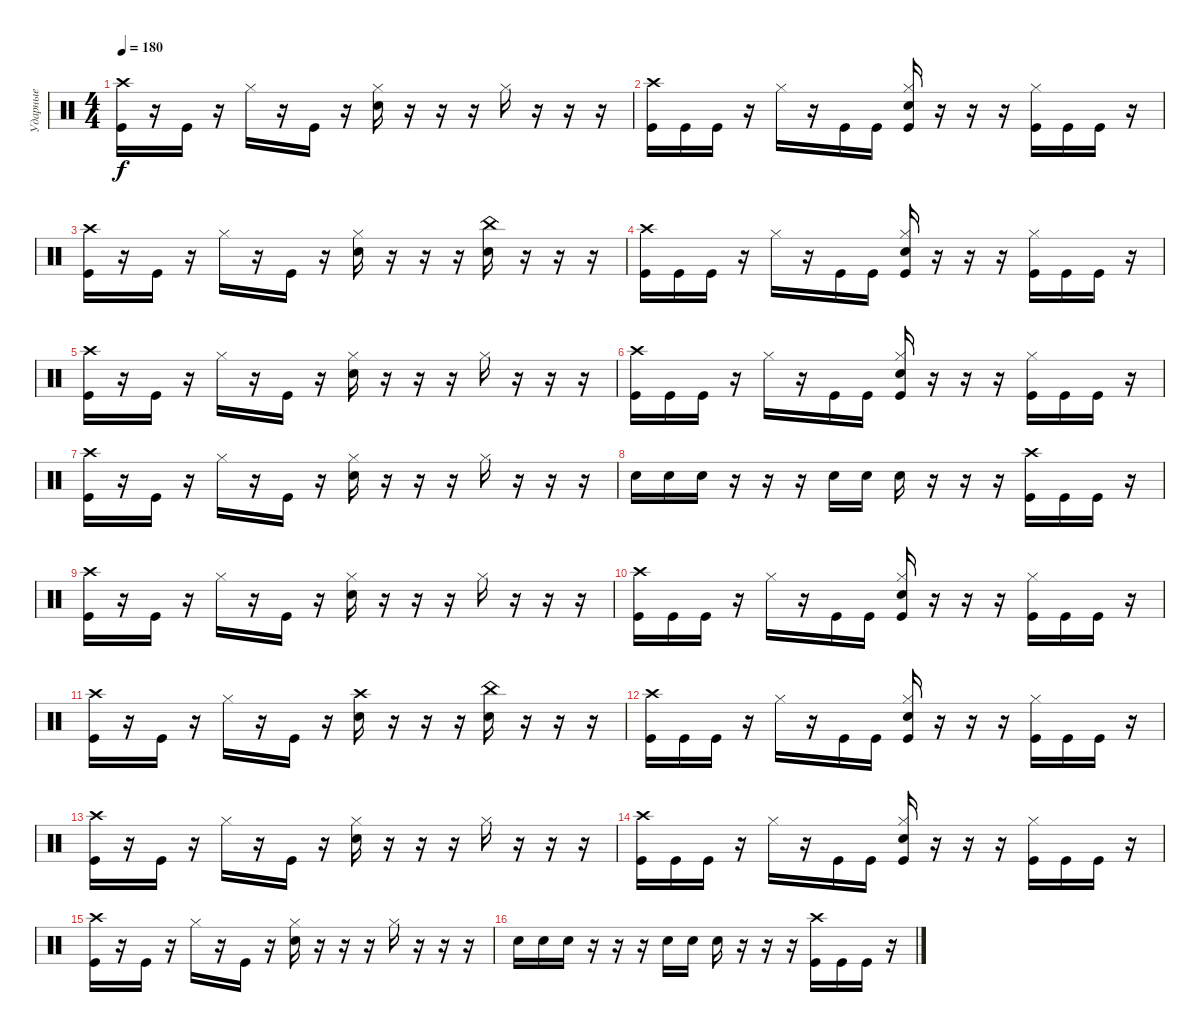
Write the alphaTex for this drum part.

\track ("Ударные" "Ударные") {instrument percussion}
\staff {score}
\articulation defaults
\ts (4 4)
\tempo 180
\clef neutral
\ks c
("Crash high (hit)" "Kick (hit)").16{dy f} r.16 "Kick (hit)".16 r.16 "Hi-Hat (closed)".16 r.16 "Kick (hit)".16 r.16 ("Hi-Hat (closed)" "Electric Snare (hit)").16 r.16 r.16 r.16 "Hi-Hat (closed)".16 r.16 r.16 r.16 |
("Crash high (hit)" "Kick (hit)").16 "Kick (hit)".16 "Kick (hit)".16 r.16 "Hi-Hat (closed)".16 r.16 "Kick (hit)".16 "Kick (hit)".16 ("Hi-Hat (closed)" "Electric Snare (hit)" "Kick (hit)").16 r.16 r.16 r.16 ("Hi-Hat (closed)" "Kick (hit)").16 "Kick (hit)".16 "Kick (hit)".16 r.16 |
("Crash high (hit)" "Kick (hit)").16 r.16 "Kick (hit)".16 r.16 "Hi-Hat (closed)".16 r.16 "Kick (hit)".16 r.16 ("Hi-Hat (closed)" "Electric Snare (hit)").16 r.16 r.16 r.16 ("China (hit)" "Electric Snare (hit)").16 r.16 r.16 r.16 |
("Crash high (hit)" "Kick (hit)").16 "Kick (hit)".16 "Kick (hit)".16 r.16 "Hi-Hat (closed)".16 r.16 "Kick (hit)".16 "Kick (hit)".16 ("Hi-Hat (closed)" "Electric Snare (hit)" "Kick (hit)").16 r.16 r.16 r.16 ("Hi-Hat (closed)" "Kick (hit)").16 "Kick (hit)".16 "Kick (hit)".16 r.16 |
("Crash high (hit)" "Kick (hit)").16 r.16 "Kick (hit)".16 r.16 "Hi-Hat (closed)".16 r.16 "Kick (hit)".16 r.16 ("Hi-Hat (closed)" "Electric Snare (hit)").16 r.16 r.16 r.16 "Hi-Hat (closed)".16 r.16 r.16 r.16 |
("Crash high (hit)" "Kick (hit)").16 "Kick (hit)".16 "Kick (hit)".16 r.16 "Hi-Hat (closed)".16 r.16 "Kick (hit)".16 "Kick (hit)".16 ("Hi-Hat (closed)" "Electric Snare (hit)" "Kick (hit)").16 r.16 r.16 r.16 ("Hi-Hat (closed)" "Kick (hit)").16 "Kick (hit)".16 "Kick (hit)".16 r.16 |
("Crash high (hit)" "Kick (hit)").16 r.16 "Kick (hit)".16 r.16 "Hi-Hat (closed)".16 r.16 "Kick (hit)".16 r.16 ("Hi-Hat (closed)" "Electric Snare (hit)").16 r.16 r.16 r.16 "Hi-Hat (closed)".16 r.16 r.16 r.16 |
"Electric Snare (hit)".16 "Electric Snare (hit)".16 "Electric Snare (hit)".16 r.16 r.16 r.16 "Electric Snare (hit)".16 "Electric Snare (hit)".16 "Electric Snare (hit)".16 r.16 r.16 r.16 ("Crash high (hit)" "Kick (hit)").16 "Kick (hit)".16 "Kick (hit)".16 r.16 |
("Crash high (hit)" "Kick (hit)").16 r.16 "Kick (hit)".16 r.16 "Hi-Hat (closed)".16 r.16 "Kick (hit)".16 r.16 ("Hi-Hat (closed)" "Electric Snare (hit)").16 r.16 r.16 r.16 "Hi-Hat (closed)".16 r.16 r.16 r.16 |
("Crash high (hit)" "Kick (hit)").16 "Kick (hit)".16 "Kick (hit)".16 r.16 "Hi-Hat (closed)".16 r.16 "Kick (hit)".16 "Kick (hit)".16 ("Hi-Hat (closed)" "Electric Snare (hit)" "Kick (hit)").16 r.16 r.16 r.16 ("Hi-Hat (closed)" "Kick (hit)").16 "Kick (hit)".16 "Kick (hit)".16 r.16 |
("Crash high (hit)" "Kick (hit)").16 r.16 "Kick (hit)".16 r.16 "Hi-Hat (closed)".16 r.16 "Kick (hit)".16 r.16 ("Crash high (hit)" "Electric Snare (hit)").16 r.16 r.16 r.16 ("China (hit)" "Electric Snare (hit)").16 r.16 r.16 r.16 |
("Crash high (hit)" "Kick (hit)").16 "Kick (hit)".16 "Kick (hit)".16 r.16 "Hi-Hat (closed)".16 r.16 "Kick (hit)".16 "Kick (hit)".16 ("Hi-Hat (closed)" "Electric Snare (hit)" "Kick (hit)").16 r.16 r.16 r.16 ("Hi-Hat (closed)" "Kick (hit)").16 "Kick (hit)".16 "Kick (hit)".16 r.16 |
("Crash high (hit)" "Kick (hit)").16 r.16 "Kick (hit)".16 r.16 "Hi-Hat (closed)".16 r.16 "Kick (hit)".16 r.16 ("Hi-Hat (closed)" "Electric Snare (hit)").16 r.16 r.16 r.16 "Hi-Hat (closed)".16 r.16 r.16 r.16 |
("Crash high (hit)" "Kick (hit)").16 "Kick (hit)".16 "Kick (hit)".16 r.16 "Hi-Hat (closed)".16 r.16 "Kick (hit)".16 "Kick (hit)".16 ("Hi-Hat (closed)" "Electric Snare (hit)" "Kick (hit)").16 r.16 r.16 r.16 ("Hi-Hat (closed)" "Kick (hit)").16 "Kick (hit)".16 "Kick (hit)".16 r.16 |
("Crash high (hit)" "Kick (hit)").16 r.16 "Kick (hit)".16 r.16 "Hi-Hat (closed)".16 r.16 "Kick (hit)".16 r.16 ("Hi-Hat (closed)" "Electric Snare (hit)").16 r.16 r.16 r.16 "Hi-Hat (closed)".16 r.16 r.16 r.16 |
"Electric Snare (hit)".16 "Electric Snare (hit)".16 "Electric Snare (hit)".16 r.16 r.16 r.16 "Electric Snare (hit)".16 "Electric Snare (hit)".16 "Electric Snare (hit)".16 r.16 r.16 r.16 ("Crash high (hit)" "Kick (hit)").16 "Kick (hit)".16 "Kick (hit)".16 r.16
